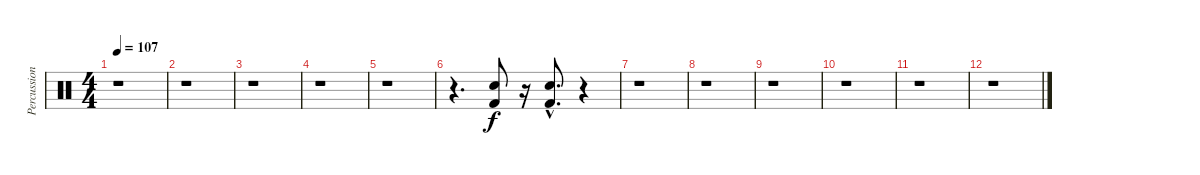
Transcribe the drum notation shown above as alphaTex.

\track ("Percussions" "Percussion") {instrument percussion}
\staff {score}
\articulation defaults
\ts (4 4)
\tempo 107
\clef neutral
\ks c
r.1{dy f} |
r.1 |
r.1 |
r.1 |
r.1 |
r.4{d} ("Kick (hit) 2" "Electric Snare (hit)").8 r.16 ("Kick (hit) 2"{hac} "Electric Snare (hit)"{hac}).8{d} r.4 |
r.1 |
r.1 |
r.1 |
r.1 |
r.1 |
r.1
